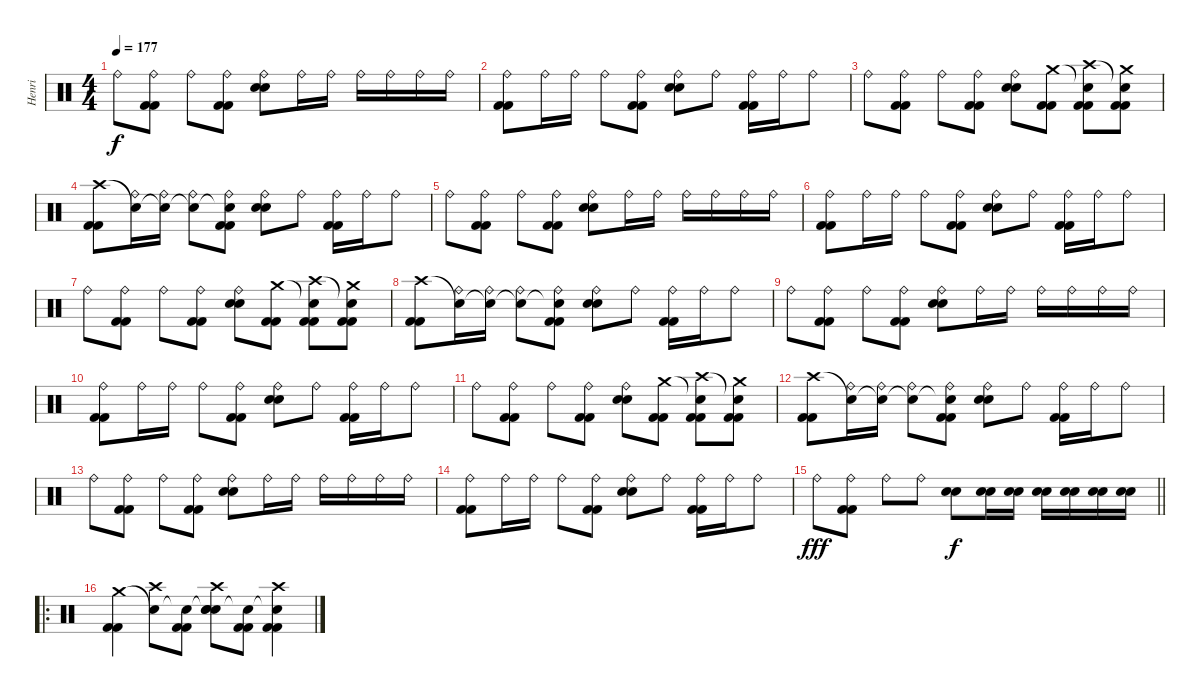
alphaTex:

\track ("Henri" "Henri") {instrument percussion}
\staff {score}
\articulation defaults
\ts (4 4)
\tempo 177
\clef neutral
\ks c "Ride (bell)".8{dy f}
("Ride (bell)" "Kick (hit) 2" "Kick (hit) 2").8 "Ride (bell)".8 ("Ride (bell)" "Kick (hit) 2" "Kick (hit) 2").8 ("Ride (bell)" "Snare (hit) 2" "Snare (hit) 2").8 "Ride (bell)".16 "Ride (bell)".16 "Ride (bell)".16 "Ride (bell)".16 "Ride (bell)".16 "Ride (bell)".16 |
("Ride (bell)" "Kick (hit) 2" "Kick (hit) 2").8 "Ride (bell)".16 "Ride (bell)".16 "Ride (bell)".8 ("Ride (bell)" "Kick (hit) 2" "Kick (hit) 2").8 ("Ride (bell)" "Snare (hit) 2" "Snare (hit) 2").8 "Ride (bell)".8 ("Ride (bell)" "Kick (hit) 2" "Kick (hit) 2").16 "Ride (bell)".16 "Ride (bell)".8 |
"Ride (bell)".8 ("Ride (bell)" "Kick (hit) 2" "Kick (hit) 2").8 "Ride (bell)".8 ("Ride (bell)" "Kick (hit) 2" "Kick (hit) 2").8 ("Ride (bell)" "Snare (hit) 2" "Snare (hit) 2").8 ("Crash medium (hit)" "Kick (hit) 2" "Kick (hit) 2").8 ("Snare (hit)"{t} "Crash high (hit)" "Kick (hit) 2" "Kick (hit) 2").8 ("Crash medium (hit)" "Snare (hit)"{t} "Kick (hit) 2" "Kick (hit) 2").8 |
("Crash high (hit)" "Kick (hit) 2" "Kick (hit) 2").8 ("Snare (hit)"{t} "Ride (bell)").16 ("Snare (hit)"{t} "Ride (bell)").16 ("Snare (hit)"{t} "Ride (bell)").8 ("Snare (hit)"{t} "Ride (bell)" "Kick (hit) 2" "Kick (hit) 2").8 ("Ride (bell)" "Snare (hit) 2" "Snare (hit) 2").8 "Ride (bell)".8 ("Ride (bell)" "Kick (hit) 2" "Kick (hit) 2").16 "Ride (bell)".16 "Ride (bell)".8 |
"Ride (bell)".8 ("Ride (bell)" "Kick (hit) 2" "Kick (hit) 2").8 "Ride (bell)".8 ("Ride (bell)" "Kick (hit) 2" "Kick (hit) 2").8 ("Ride (bell)" "Snare (hit) 2" "Snare (hit) 2").8 "Ride (bell)".16 "Ride (bell)".16 "Ride (bell)".16 "Ride (bell)".16 "Ride (bell)".16 "Ride (bell)".16 |
("Ride (bell)" "Kick (hit) 2" "Kick (hit) 2").8 "Ride (bell)".16 "Ride (bell)".16 "Ride (bell)".8 ("Ride (bell)" "Kick (hit) 2" "Kick (hit) 2").8 ("Ride (bell)" "Snare (hit) 2" "Snare (hit) 2").8 "Ride (bell)".8 ("Ride (bell)" "Kick (hit) 2" "Kick (hit) 2").16 "Ride (bell)".16 "Ride (bell)".8 |
"Ride (bell)".8 ("Ride (bell)" "Kick (hit) 2" "Kick (hit) 2").8 "Ride (bell)".8 ("Ride (bell)" "Kick (hit) 2" "Kick (hit) 2").8 ("Ride (bell)" "Snare (hit) 2" "Snare (hit) 2").8 ("Crash medium (hit)" "Kick (hit) 2" "Kick (hit) 2").8 ("Snare (hit)"{t} "Crash high (hit)" "Kick (hit) 2" "Kick (hit) 2").8 ("Crash medium (hit)" "Snare (hit)"{t} "Kick (hit) 2" "Kick (hit) 2").8 |
("Crash high (hit)" "Kick (hit) 2" "Kick (hit) 2").8 ("Snare (hit)"{t} "Ride (bell)").16 ("Snare (hit)"{t} "Ride (bell)").16 ("Snare (hit)"{t} "Ride (bell)").8 ("Snare (hit)"{t} "Ride (bell)" "Kick (hit) 2" "Kick (hit) 2").8 ("Ride (bell)" "Snare (hit) 2" "Snare (hit) 2").8 "Ride (bell)".8 ("Ride (bell)" "Kick (hit) 2" "Kick (hit) 2").16 "Ride (bell)".16 "Ride (bell)".8 |
"Ride (bell)".8 ("Ride (bell)" "Kick (hit) 2" "Kick (hit) 2").8 "Ride (bell)".8 ("Ride (bell)" "Kick (hit) 2" "Kick (hit) 2").8 ("Ride (bell)" "Snare (hit) 2" "Snare (hit) 2").8 "Ride (bell)".16 "Ride (bell)".16 "Ride (bell)".16 "Ride (bell)".16 "Ride (bell)".16 "Ride (bell)".16 |
("Ride (bell)" "Kick (hit) 2" "Kick (hit) 2").8 "Ride (bell)".16 "Ride (bell)".16 "Ride (bell)".8 ("Ride (bell)" "Kick (hit) 2" "Kick (hit) 2").8 ("Ride (bell)" "Snare (hit) 2" "Snare (hit) 2").8 "Ride (bell)".8 ("Ride (bell)" "Kick (hit) 2" "Kick (hit) 2").16 "Ride (bell)".16 "Ride (bell)".8 |
"Ride (bell)".8 ("Ride (bell)" "Kick (hit) 2" "Kick (hit) 2").8 "Ride (bell)".8 ("Ride (bell)" "Kick (hit) 2" "Kick (hit) 2").8 ("Ride (bell)" "Snare (hit) 2" "Snare (hit) 2").8 ("Crash medium (hit)" "Kick (hit) 2" "Kick (hit) 2").8 ("Snare (hit)"{t} "Crash high (hit)" "Kick (hit) 2" "Kick (hit) 2").8 ("Crash medium (hit)" "Snare (hit)"{t} "Kick (hit) 2" "Kick (hit) 2").8 |
("Crash high (hit)" "Kick (hit) 2" "Kick (hit) 2").8 ("Snare (hit)"{t} "Ride (bell)").16 ("Snare (hit)"{t} "Ride (bell)").16 ("Snare (hit)"{t} "Ride (bell)").8 ("Snare (hit)"{t} "Ride (bell)" "Kick (hit) 2" "Kick (hit) 2").8 ("Ride (bell)" "Snare (hit) 2" "Snare (hit) 2").8 "Ride (bell)".8 ("Ride (bell)" "Kick (hit) 2" "Kick (hit) 2").16 "Ride (bell)".16 "Ride (bell)".8 |
"Ride (bell)".8 ("Ride (bell)" "Kick (hit) 2" "Kick (hit) 2").8 "Ride (bell)".8 ("Ride (bell)" "Kick (hit) 2" "Kick (hit) 2").8 ("Ride (bell)" "Snare (hit) 2" "Snare (hit) 2").8 "Ride (bell)".16 "Ride (bell)".16 "Ride (bell)".16 "Ride (bell)".16 "Ride (bell)".16 "Ride (bell)".16 |
("Ride (bell)" "Kick (hit) 2" "Kick (hit) 2").8 "Ride (bell)".16 "Ride (bell)".16 "Ride (bell)".8 ("Ride (bell)" "Kick (hit) 2" "Kick (hit) 2").8 ("Ride (bell)" "Snare (hit) 2" "Snare (hit) 2").8 "Ride (bell)".8 ("Ride (bell)" "Kick (hit) 2" "Kick (hit) 2").16 "Ride (bell)".16 "Ride (bell)".8 |
\barLineRight lightlight "Ride (bell)".8{dy fff}
("Ride (bell)" "Kick (hit) 2" "Kick (hit) 2").8 "Ride (bell)".8 "Ride (bell)".8 ("Snare (hit) 2" "Snare (hit) 2").8{dy f} ("Snare (hit) 2" "Snare (hit) 2").16 ("Snare (hit) 2" "Snare (hit) 2").16 ("Snare (hit) 2" "Snare (hit) 2").16 ("Snare (hit) 2" "Snare (hit) 2").16 ("Snare (hit) 2" "Snare (hit) 2").16 ("Snare (hit) 2" "Snare (hit) 2").16 |
\ro
("Crash medium (hit)" "Kick (hit) 2" "Kick (hit) 2").4 ("Snare (hit)"{t} "Crash high (hit)").8 ("Snare (hit)"{t} "Kick (hit) 2" "Kick (hit) 2").8 ("Snare (hit)"{t} "Crash high (hit)" "Snare (hit) 2" "Snare (hit) 2").8 ("Snare (hit)"{t} "Kick (hit) 2" "Kick (hit) 2").8 ("Snare (hit)"{t} "Crash high (hit)" "Kick (hit) 2" "Kick (hit) 2").4
